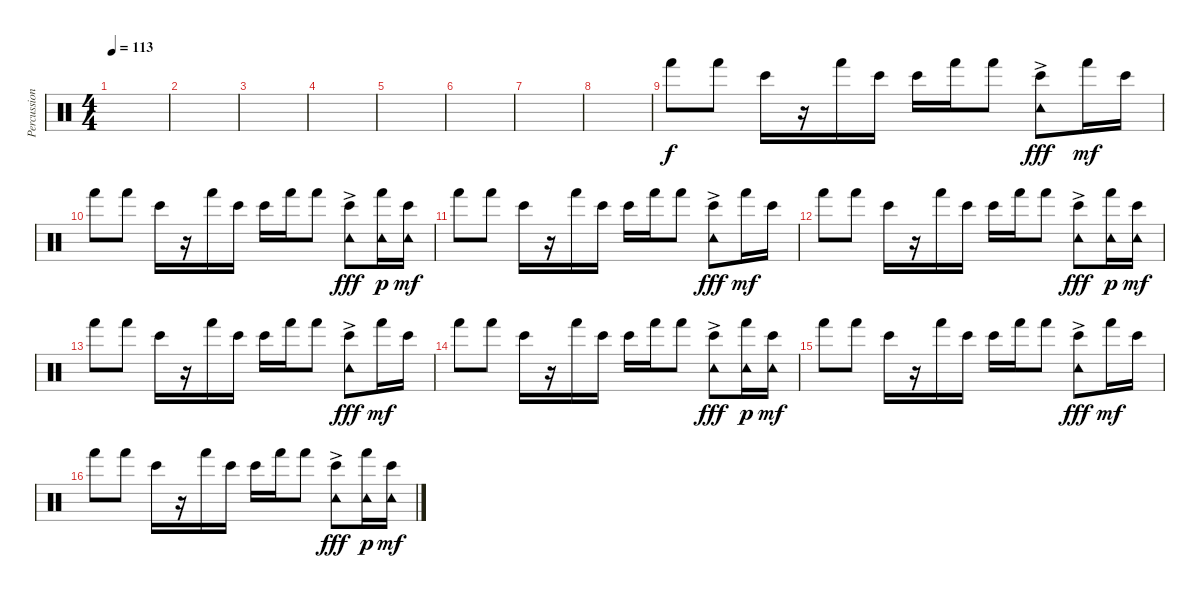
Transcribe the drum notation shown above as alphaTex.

\track ("Percussion" "Percussion") {instrument percussion}
\staff {score}
\articulation defaults
\ts (4 4)
\tempo 113
\clef neutral
\ks c
|
|
|
|
|
|
|
|
"Hand (hit)".8 "Hand (hit)".8 "Bongo High (hit)".16 r.16 "Hand (hit)".16 "Bongo High (hit)".16 "Bongo High (hit)".16 "Hand (hit)".16 "Hand (hit)".8 ("Bongo High (hit)" "Tambourine (hit)"{ac}).8{dy fff} "Hand (hit)".16{dy mf} "Bongo High (hit)".16 |
"Hand (hit)".8 "Hand (hit)".8 "Bongo High (hit)".16 r.16 "Hand (hit)".16 "Bongo High (hit)".16 "Bongo High (hit)".16 "Hand (hit)".16 "Hand (hit)".8 ("Bongo High (hit)" "Tambourine (hit)"{ac}).8{dy fff} ("Hand (hit)" "Tambourine (hit)").16{dy p} ("Bongo High (hit)" "Tambourine (hit)").16{dy mf} |
"Hand (hit)".8 "Hand (hit)".8 "Bongo High (hit)".16 r.16 "Hand (hit)".16 "Bongo High (hit)".16 "Bongo High (hit)".16 "Hand (hit)".16 "Hand (hit)".8 ("Bongo High (hit)" "Tambourine (hit)"{ac}).8{dy fff} "Hand (hit)".16{dy mf} "Bongo High (hit)".16 |
"Hand (hit)".8 "Hand (hit)".8 "Bongo High (hit)".16 r.16 "Hand (hit)".16 "Bongo High (hit)".16 "Bongo High (hit)".16 "Hand (hit)".16 "Hand (hit)".8 ("Bongo High (hit)" "Tambourine (hit)"{ac}).8{dy fff} ("Hand (hit)" "Tambourine (hit)").16{dy p} ("Bongo High (hit)" "Tambourine (hit)").16{dy mf} |
"Hand (hit)".8 "Hand (hit)".8 "Bongo High (hit)".16 r.16 "Hand (hit)".16 "Bongo High (hit)".16 "Bongo High (hit)".16 "Hand (hit)".16 "Hand (hit)".8 ("Bongo High (hit)" "Tambourine (hit)"{ac}).8{dy fff} "Hand (hit)".16{dy mf} "Bongo High (hit)".16 |
"Hand (hit)".8 "Hand (hit)".8 "Bongo High (hit)".16 r.16 "Hand (hit)".16 "Bongo High (hit)".16 "Bongo High (hit)".16 "Hand (hit)".16 "Hand (hit)".8 ("Bongo High (hit)" "Tambourine (hit)"{ac}).8{dy fff} ("Hand (hit)" "Tambourine (hit)").16{dy p} ("Bongo High (hit)" "Tambourine (hit)").16{dy mf} |
"Hand (hit)".8 "Hand (hit)".8 "Bongo High (hit)".16 r.16 "Hand (hit)".16 "Bongo High (hit)".16 "Bongo High (hit)".16 "Hand (hit)".16 "Hand (hit)".8 ("Bongo High (hit)" "Tambourine (hit)"{ac}).8{dy fff} "Hand (hit)".16{dy mf} "Bongo High (hit)".16 |
"Hand (hit)".8 "Hand (hit)".8 "Bongo High (hit)".16 r.16 "Hand (hit)".16 "Bongo High (hit)".16 "Bongo High (hit)".16 "Hand (hit)".16 "Hand (hit)".8 ("Bongo High (hit)" "Tambourine (hit)"{ac}).8{dy fff} ("Hand (hit)" "Tambourine (hit)").16{dy p} ("Bongo High (hit)" "Tambourine (hit)").16{dy mf}
